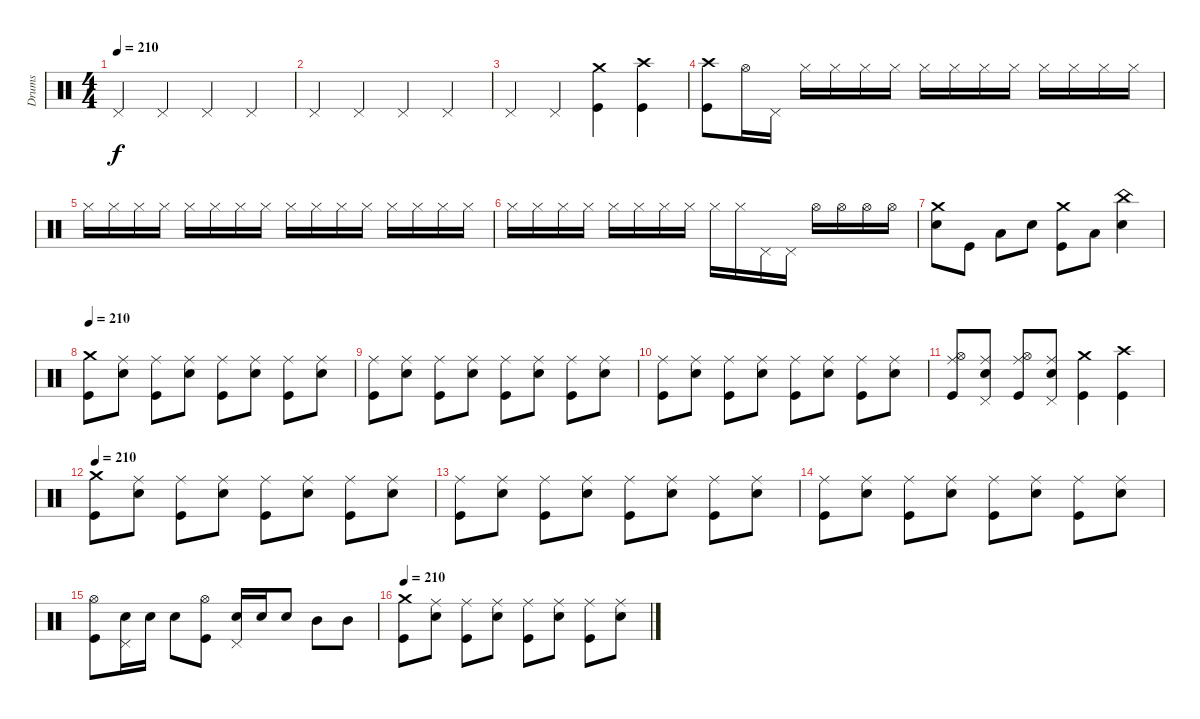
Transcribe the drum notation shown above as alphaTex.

\track ("Drums" "Drums") {instrument percussion}
\staff {score}
\articulation defaults
\ts (4 4)
\tempo 210
\clef neutral
\ks c "Pedal Hi-Hat (hit)".4{dy f} "Pedal Hi-Hat (hit)".4 "Pedal Hi-Hat (hit)".4 "Pedal Hi-Hat (hit)".4
|
"Pedal Hi-Hat (hit)".4 "Pedal Hi-Hat (hit)".4 "Pedal Hi-Hat (hit)".4 "Pedal Hi-Hat (hit)".4 |
"Pedal Hi-Hat (hit)".4 "Pedal Hi-Hat (hit)".4 ("Crash medium (hit)" "Kick (hit)").4 ("Crash high (hit)" "Kick (hit)").4 |
("Crash high (hit)" "Kick (hit)").8 "Hi-Hat (open)".16 "Pedal Hi-Hat (hit)".16 "Hi-Hat (closed)".16 "Hi-Hat (closed)".16 "Hi-Hat (closed)".16 "Hi-Hat (closed)".16 "Hi-Hat (closed)".16 "Hi-Hat (closed)".16 "Hi-Hat (closed)".16 "Hi-Hat (closed)".16 "Hi-Hat (closed)".16 "Hi-Hat (closed)".16 "Hi-Hat (closed)".16 "Hi-Hat (closed)".16 |
"Hi-Hat (closed)".16 "Hi-Hat (closed)".16 "Hi-Hat (closed)".16 "Hi-Hat (closed)".16 "Hi-Hat (closed)".16 "Hi-Hat (closed)".16 "Hi-Hat (closed)".16 "Hi-Hat (closed)".16 "Hi-Hat (closed)".16 "Hi-Hat (closed)".16 "Hi-Hat (closed)".16 "Hi-Hat (closed)".16 "Hi-Hat (closed)".16 "Hi-Hat (closed)".16 "Hi-Hat (closed)".16 "Hi-Hat (closed)".16 |
"Hi-Hat (closed)".16 "Hi-Hat (closed)".16 "Hi-Hat (closed)".16 "Hi-Hat (closed)".16 "Hi-Hat (closed)".16 "Hi-Hat (closed)".16 "Hi-Hat (closed)".16 "Hi-Hat (closed)".16 "Hi-Hat (closed)".16 "Hi-Hat (closed)".16 "Pedal Hi-Hat (hit)".16 "Pedal Hi-Hat (hit)".16 "Hi-Hat (open)".16 "Hi-Hat (open)".16 "Hi-Hat (open)".16 "Hi-Hat (open)".16 |
("Crash medium (hit)" "Electric Snare (hit)").8 "Kick (hit)".8 "Low Tom (hit)".8 "Electric Snare (hit)".8 ("Crash medium (hit)" "Kick (hit)").8 "Low Tom (hit)".8 ("China (hit)" "Electric Snare (hit)").4 |
\tempo 210
("Crash medium (hit)" "Kick (hit)").8 ("Ride (middle)" "Electric Snare (hit)").8 ("Ride (middle)" "Kick (hit)").8 ("Ride (middle)" "Electric Snare (hit)").8 ("Ride (middle)" "Kick (hit)").8 ("Ride (middle)" "Electric Snare (hit)").8 ("Ride (middle)" "Kick (hit)").8 ("Ride (middle)" "Electric Snare (hit)").8 |
("Ride (middle)" "Kick (hit)").8 ("Ride (middle)" "Electric Snare (hit)").8 ("Ride (middle)" "Kick (hit)").8 ("Ride (middle)" "Electric Snare (hit)").8 ("Ride (middle)" "Kick (hit)").8 ("Ride (middle)" "Electric Snare (hit)").8 ("Ride (middle)" "Kick (hit)").8 ("Ride (middle)" "Electric Snare (hit)").8 |
("Ride (middle)" "Kick (hit)").8 ("Ride (middle)" "Electric Snare (hit)").8 ("Ride (middle)" "Kick (hit)").8 ("Ride (middle)" "Electric Snare (hit)").8 ("Ride (middle)" "Kick (hit)").8 ("Ride (middle)" "Electric Snare (hit)").8 ("Ride (middle)" "Kick (hit)").8 ("Ride (middle)" "Electric Snare (hit)").8 |
("Ride (middle)" "Hi-Hat (open)" "Kick (hit)").8 ("Ride (middle)" "Pedal Hi-Hat (hit)" "Electric Snare (hit)").8 ("Ride (middle)" "Hi-Hat (open)" "Kick (hit)").8 ("Ride (middle)" "Pedal Hi-Hat (hit)" "Electric Snare (hit)").8 ("Crash medium (hit)" "Kick (hit)").4 ("Crash high (hit)" "Kick (hit)").4 |
\tempo 210
("Crash medium (hit)" "Kick (hit)").8 ("Ride (middle)" "Electric Snare (hit)").8 ("Ride (middle)" "Kick (hit)").8 ("Ride (middle)" "Electric Snare (hit)").8 ("Ride (middle)" "Kick (hit)").8 ("Ride (middle)" "Electric Snare (hit)").8 ("Ride (middle)" "Kick (hit)").8 ("Ride (middle)" "Electric Snare (hit)").8 |
("Ride (middle)" "Kick (hit)").8 ("Ride (middle)" "Electric Snare (hit)").8 ("Ride (middle)" "Kick (hit)").8 ("Ride (middle)" "Electric Snare (hit)").8 ("Ride (middle)" "Kick (hit)").8 ("Ride (middle)" "Electric Snare (hit)").8 ("Ride (middle)" "Kick (hit)").8 ("Ride (middle)" "Electric Snare (hit)").8 |
("Ride (middle)" "Kick (hit)").8 ("Ride (middle)" "Electric Snare (hit)").8 ("Ride (middle)" "Kick (hit)").8 ("Ride (middle)" "Electric Snare (hit)").8 ("Ride (middle)" "Kick (hit)").8 ("Ride (middle)" "Electric Snare (hit)").8 ("Ride (middle)" "Kick (hit)").8 ("Ride (middle)" "Electric Snare (hit)").8 |
("Hi-Hat (open)" "Kick (hit)").8 ("Pedal Hi-Hat (hit)" "Electric Snare (hit)").16 "Electric Snare (hit)".16 "Electric Snare (hit)".8 ("Hi-Hat (open)" "Kick (hit)").8 ("Pedal Hi-Hat (hit)" "Electric Snare (hit)").16 "Electric Snare (hit)".16 "Electric Snare (hit)".8 "Mid Tom (hit)".8 "Mid Tom (hit)".8 |
\tempo 210
("Crash medium (hit)" "Kick (hit)").8 ("Ride (middle)" "Electric Snare (hit)").8 ("Ride (middle)" "Kick (hit)").8 ("Ride (middle)" "Electric Snare (hit)").8 ("Ride (middle)" "Kick (hit)").8 ("Ride (middle)" "Electric Snare (hit)").8 ("Ride (middle)" "Kick (hit)").8 ("Ride (middle)" "Electric Snare (hit)").8
